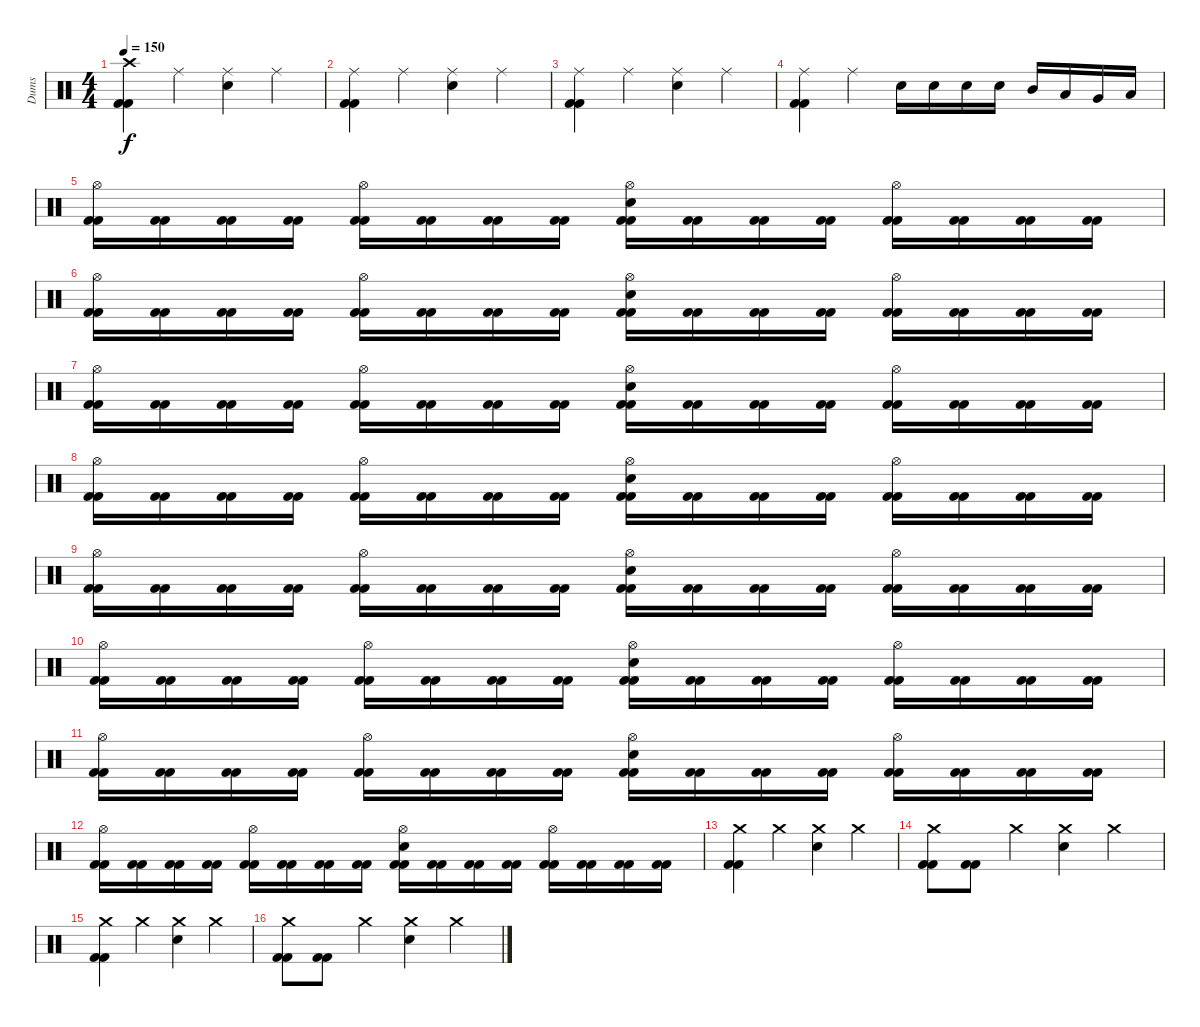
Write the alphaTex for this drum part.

\track ("Dums" "Dums") {instrument percussion}
\staff {score}
\articulation defaults
\ts (4 4)
\tempo 150
\clef neutral
\ks c
("Crash high (hit)" "Kick (hit) 2" "Kick (hit) 2").4{dy f} "Ride (middle)".4 ("Ride (middle)" "Electric Snare (hit)").4 "Ride (middle)".4 |
("Ride (middle)" "Kick (hit) 2" "Kick (hit) 2").4 "Ride (middle)".4 ("Ride (middle)" "Electric Snare (hit)").4 "Ride (middle)".4 |
("Ride (middle)" "Kick (hit) 2" "Kick (hit) 2").4 "Ride (middle)".4 ("Ride (middle)" "Electric Snare (hit)").4 "Ride (middle)".4 |
("Ride (middle)" "Kick (hit) 2" "Kick (hit) 2").4 "Ride (middle)".4 "Electric Snare (hit)".16 "Electric Snare (hit)".16 "Electric Snare (hit)".16 "Electric Snare (hit)".16 "Mid Tom (hit)".16 "Low Tom (hit)".16 "Very Low Tom (hit)".16 "Low Floor Tom (hit)".16 |
("Hi-Hat (open)" "Kick (hit) 2" "Kick (hit) 2").16 ("Kick (hit) 2" "Kick (hit) 2").16 ("Kick (hit) 2" "Kick (hit) 2").16 ("Kick (hit) 2" "Kick (hit) 2").16 ("Hi-Hat (open)" "Kick (hit) 2" "Kick (hit) 2").16 ("Kick (hit) 2" "Kick (hit) 2").16 ("Kick (hit) 2" "Kick (hit) 2").16 ("Kick (hit) 2" "Kick (hit) 2").16 ("Hi-Hat (open)" "Electric Snare (hit)" "Kick (hit) 2" "Kick (hit) 2").16 ("Kick (hit) 2" "Kick (hit) 2").16 ("Kick (hit) 2" "Kick (hit) 2").16 ("Kick (hit) 2" "Kick (hit) 2").16 ("Hi-Hat (open)" "Kick (hit) 2" "Kick (hit) 2").16 ("Kick (hit) 2" "Kick (hit) 2").16 ("Kick (hit) 2" "Kick (hit) 2").16 ("Kick (hit) 2" "Kick (hit) 2").16 |
("Hi-Hat (open)" "Kick (hit) 2" "Kick (hit) 2").16 ("Kick (hit) 2" "Kick (hit) 2").16 ("Kick (hit) 2" "Kick (hit) 2").16 ("Kick (hit) 2" "Kick (hit) 2").16 ("Hi-Hat (open)" "Kick (hit) 2" "Kick (hit) 2").16 ("Kick (hit) 2" "Kick (hit) 2").16 ("Kick (hit) 2" "Kick (hit) 2").16 ("Kick (hit) 2" "Kick (hit) 2").16 ("Hi-Hat (open)" "Electric Snare (hit)" "Kick (hit) 2" "Kick (hit) 2").16 ("Kick (hit) 2" "Kick (hit) 2").16 ("Kick (hit) 2" "Kick (hit) 2").16 ("Kick (hit) 2" "Kick (hit) 2").16 ("Hi-Hat (open)" "Kick (hit) 2" "Kick (hit) 2").16 ("Kick (hit) 2" "Kick (hit) 2").16 ("Kick (hit) 2" "Kick (hit) 2").16 ("Kick (hit) 2" "Kick (hit) 2").16 |
("Hi-Hat (open)" "Kick (hit) 2" "Kick (hit) 2").16 ("Kick (hit) 2" "Kick (hit) 2").16 ("Kick (hit) 2" "Kick (hit) 2").16 ("Kick (hit) 2" "Kick (hit) 2").16 ("Hi-Hat (open)" "Kick (hit) 2" "Kick (hit) 2").16 ("Kick (hit) 2" "Kick (hit) 2").16 ("Kick (hit) 2" "Kick (hit) 2").16 ("Kick (hit) 2" "Kick (hit) 2").16 ("Hi-Hat (open)" "Electric Snare (hit)" "Kick (hit) 2" "Kick (hit) 2").16 ("Kick (hit) 2" "Kick (hit) 2").16 ("Kick (hit) 2" "Kick (hit) 2").16 ("Kick (hit) 2" "Kick (hit) 2").16 ("Hi-Hat (open)" "Kick (hit) 2" "Kick (hit) 2").16 ("Kick (hit) 2" "Kick (hit) 2").16 ("Kick (hit) 2" "Kick (hit) 2").16 ("Kick (hit) 2" "Kick (hit) 2").16 |
("Hi-Hat (open)" "Kick (hit) 2" "Kick (hit) 2").16 ("Kick (hit) 2" "Kick (hit) 2").16 ("Kick (hit) 2" "Kick (hit) 2").16 ("Kick (hit) 2" "Kick (hit) 2").16 ("Hi-Hat (open)" "Kick (hit) 2" "Kick (hit) 2").16 ("Kick (hit) 2" "Kick (hit) 2").16 ("Kick (hit) 2" "Kick (hit) 2").16 ("Kick (hit) 2" "Kick (hit) 2").16 ("Hi-Hat (open)" "Electric Snare (hit)" "Kick (hit) 2" "Kick (hit) 2").16 ("Kick (hit) 2" "Kick (hit) 2").16 ("Kick (hit) 2" "Kick (hit) 2").16 ("Kick (hit) 2" "Kick (hit) 2").16 ("Hi-Hat (open)" "Kick (hit) 2" "Kick (hit) 2").16 ("Kick (hit) 2" "Kick (hit) 2").16 ("Kick (hit) 2" "Kick (hit) 2").16 ("Kick (hit) 2" "Kick (hit) 2").16 |
("Hi-Hat (open)" "Kick (hit) 2" "Kick (hit) 2").16 ("Kick (hit) 2" "Kick (hit) 2").16 ("Kick (hit) 2" "Kick (hit) 2").16 ("Kick (hit) 2" "Kick (hit) 2").16 ("Hi-Hat (open)" "Kick (hit) 2" "Kick (hit) 2").16 ("Kick (hit) 2" "Kick (hit) 2").16 ("Kick (hit) 2" "Kick (hit) 2").16 ("Kick (hit) 2" "Kick (hit) 2").16 ("Hi-Hat (open)" "Electric Snare (hit)" "Kick (hit) 2" "Kick (hit) 2").16 ("Kick (hit) 2" "Kick (hit) 2").16 ("Kick (hit) 2" "Kick (hit) 2").16 ("Kick (hit) 2" "Kick (hit) 2").16 ("Hi-Hat (open)" "Kick (hit) 2" "Kick (hit) 2").16 ("Kick (hit) 2" "Kick (hit) 2").16 ("Kick (hit) 2" "Kick (hit) 2").16 ("Kick (hit) 2" "Kick (hit) 2").16 |
("Hi-Hat (open)" "Kick (hit) 2" "Kick (hit) 2").16 ("Kick (hit) 2" "Kick (hit) 2").16 ("Kick (hit) 2" "Kick (hit) 2").16 ("Kick (hit) 2" "Kick (hit) 2").16 ("Hi-Hat (open)" "Kick (hit) 2" "Kick (hit) 2").16 ("Kick (hit) 2" "Kick (hit) 2").16 ("Kick (hit) 2" "Kick (hit) 2").16 ("Kick (hit) 2" "Kick (hit) 2").16 ("Hi-Hat (open)" "Electric Snare (hit)" "Kick (hit) 2" "Kick (hit) 2").16 ("Kick (hit) 2" "Kick (hit) 2").16 ("Kick (hit) 2" "Kick (hit) 2").16 ("Kick (hit) 2" "Kick (hit) 2").16 ("Hi-Hat (open)" "Kick (hit) 2" "Kick (hit) 2").16 ("Kick (hit) 2" "Kick (hit) 2").16 ("Kick (hit) 2" "Kick (hit) 2").16 ("Kick (hit) 2" "Kick (hit) 2").16 |
("Hi-Hat (open)" "Kick (hit) 2" "Kick (hit) 2").16 ("Kick (hit) 2" "Kick (hit) 2").16 ("Kick (hit) 2" "Kick (hit) 2").16 ("Kick (hit) 2" "Kick (hit) 2").16 ("Hi-Hat (open)" "Kick (hit) 2" "Kick (hit) 2").16 ("Kick (hit) 2" "Kick (hit) 2").16 ("Kick (hit) 2" "Kick (hit) 2").16 ("Kick (hit) 2" "Kick (hit) 2").16 ("Hi-Hat (open)" "Electric Snare (hit)" "Kick (hit) 2" "Kick (hit) 2").16 ("Kick (hit) 2" "Kick (hit) 2").16 ("Kick (hit) 2" "Kick (hit) 2").16 ("Kick (hit) 2" "Kick (hit) 2").16 ("Hi-Hat (open)" "Kick (hit) 2" "Kick (hit) 2").16 ("Kick (hit) 2" "Kick (hit) 2").16 ("Kick (hit) 2" "Kick (hit) 2").16 ("Kick (hit) 2" "Kick (hit) 2").16 |
("Hi-Hat (open)" "Kick (hit) 2" "Kick (hit) 2").16 ("Kick (hit) 2" "Kick (hit) 2").16 ("Kick (hit) 2" "Kick (hit) 2").16 ("Kick (hit) 2" "Kick (hit) 2").16 ("Hi-Hat (open)" "Kick (hit) 2" "Kick (hit) 2").16 ("Kick (hit) 2" "Kick (hit) 2").16 ("Kick (hit) 2" "Kick (hit) 2").16 ("Kick (hit) 2" "Kick (hit) 2").16 ("Hi-Hat (open)" "Electric Snare (hit)" "Kick (hit) 2" "Kick (hit) 2").16 ("Kick (hit) 2" "Kick (hit) 2").16 ("Kick (hit) 2" "Kick (hit) 2").16 ("Kick (hit) 2" "Kick (hit) 2").16 ("Hi-Hat (open)" "Kick (hit) 2" "Kick (hit) 2").16 ("Kick (hit) 2" "Kick (hit) 2").16 ("Kick (hit) 2" "Kick (hit) 2").16 ("Kick (hit) 2" "Kick (hit) 2").16 |
("Crash medium (hit)" "Kick (hit) 2" "Kick (hit) 2").4 "Crash medium (hit)".4 ("Crash medium (hit)" "Electric Snare (hit)").4 "Crash medium (hit)".4 |
("Crash medium (hit)" "Kick (hit) 2" "Kick (hit) 2").8 ("Kick (hit) 2" "Kick (hit) 2").8 "Crash medium (hit)".4 ("Crash medium (hit)" "Electric Snare (hit)").4 "Crash medium (hit)".4 |
("Crash medium (hit)" "Kick (hit) 2" "Kick (hit) 2").4 "Crash medium (hit)".4 ("Crash medium (hit)" "Electric Snare (hit)").4 "Crash medium (hit)".4 |
("Crash medium (hit)" "Kick (hit) 2" "Kick (hit) 2").8 ("Kick (hit) 2" "Kick (hit) 2").8 "Crash medium (hit)".4 ("Crash medium (hit)" "Electric Snare (hit)").4 "Crash medium (hit)".4
